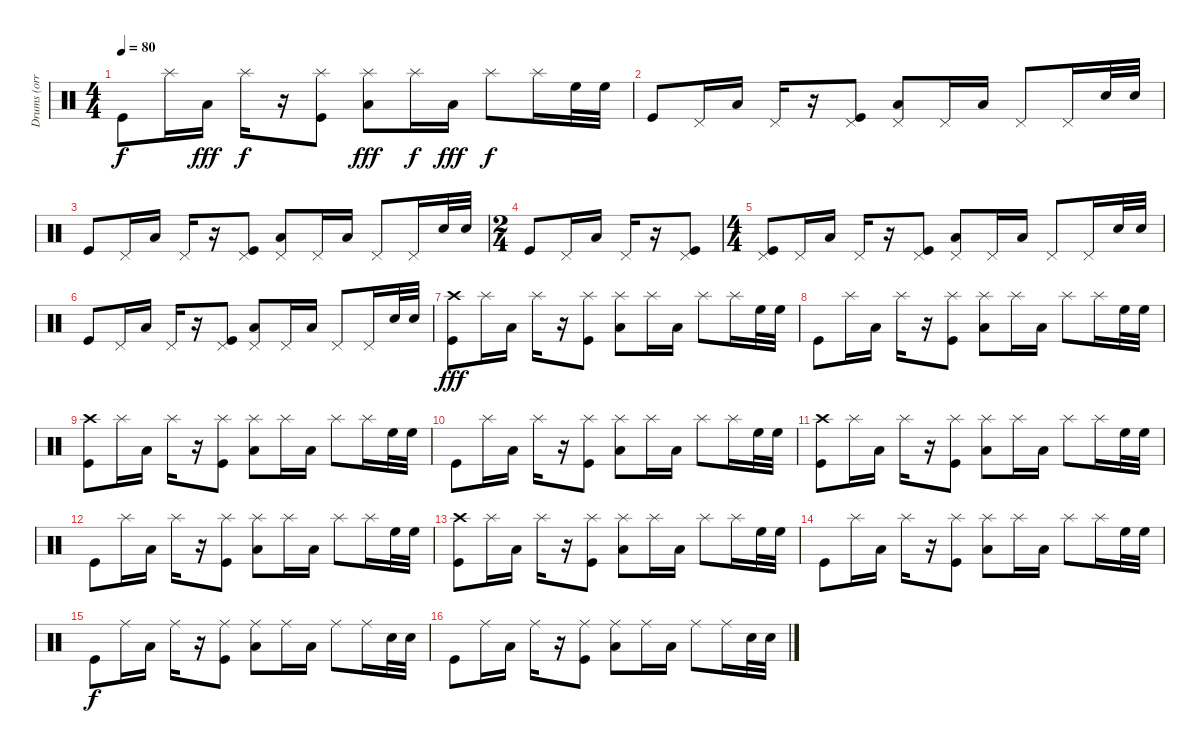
\track ("Drums (orri páll dırason)" "Drums (orr") {instrument percussion}
\staff {score}
\articulation defaults
\ts (4 4)
\tempo 80
\clef neutral
\ks c "Kick (hit)".8{dy f} "Splash (hit)".16 "Low Tom (hit)".16{dy fff} "Splash (hit)".16{dy f}
r.16 ("Splash (hit)" "Kick (hit)").8 ("Splash (hit)" "Low Tom (hit)").8{dy fff} "Splash (hit)".16{dy f} "Low Tom (hit)".16{dy fff} "Splash (hit)".8{dy f} "Splash (hit)".16 "High Floor Tom (hit)".32 "High Floor Tom (hit)".32 |
"Kick (hit)".8 "Pedal Hi-Hat (hit)".16 "Low Floor Tom (hit)".16 "Pedal Hi-Hat (hit)".16 r.16 ("Pedal Hi-Hat (hit)" "Kick (hit)").8 ("Pedal Hi-Hat (hit)" "Low Floor Tom (hit)").8 "Pedal Hi-Hat (hit)".16 "Low Floor Tom (hit)".16 "Pedal Hi-Hat (hit)".8 "Pedal Hi-Hat (hit)".16 "Electric Snare (hit)".32 "Electric Snare (hit)".32 |
"Kick (hit)".8 "Pedal Hi-Hat (hit)".16 "Low Floor Tom (hit)".16 "Pedal Hi-Hat (hit)".16 r.16 ("Pedal Hi-Hat (hit)" "Kick (hit)").8 ("Pedal Hi-Hat (hit)" "Low Floor Tom (hit)").8 "Pedal Hi-Hat (hit)".16 "Low Floor Tom (hit)".16 "Pedal Hi-Hat (hit)".8 "Pedal Hi-Hat (hit)".16 "Electric Snare (hit)".32 "Electric Snare (hit)".32 |
\ts (2 4)
"Kick (hit)".8 "Pedal Hi-Hat (hit)".16 "Low Floor Tom (hit)".16 "Pedal Hi-Hat (hit)".16 r.16 ("Pedal Hi-Hat (hit)" "Kick (hit)").8 |
\ts (4 4)
("Pedal Hi-Hat (hit)" "Kick (hit)").8 "Pedal Hi-Hat (hit)".16 "Low Floor Tom (hit)".16 "Pedal Hi-Hat (hit)".16 r.16 ("Pedal Hi-Hat (hit)" "Kick (hit)").8 ("Pedal Hi-Hat (hit)" "Low Floor Tom (hit)").8 "Pedal Hi-Hat (hit)".16 "Low Floor Tom (hit)".16 "Pedal Hi-Hat (hit)".8 "Pedal Hi-Hat (hit)".16 "Electric Snare (hit)".32 "Electric Snare (hit)".32 |
"Kick (hit)".8 "Pedal Hi-Hat (hit)".16 "Low Floor Tom (hit)".16 "Pedal Hi-Hat (hit)".16 r.16 ("Pedal Hi-Hat (hit)" "Kick (hit)").8 ("Pedal Hi-Hat (hit)" "Low Floor Tom (hit)").8 "Pedal Hi-Hat (hit)".16 "Low Floor Tom (hit)".16 "Pedal Hi-Hat (hit)".8 "Pedal Hi-Hat (hit)".16 "Electric Snare (hit)".32 "Electric Snare (hit)".32 |
("Crash high (hit)" "Kick (hit)").8{dy fff} "Splash (hit)".16 "Low Tom (hit)".16 "Splash (hit)".16 r.16 ("Splash (hit)" "Kick (hit)").8 ("Splash (hit)" "Low Tom (hit)").8 "Splash (hit)".16 "Low Tom (hit)".16 "Splash (hit)".8 "Splash (hit)".16 "High Floor Tom (hit)".32 "High Floor Tom (hit)".32 |
"Kick (hit)".8 "Splash (hit)".16 "Low Tom (hit)".16 "Splash (hit)".16 r.16 ("Splash (hit)" "Kick (hit)").8 ("Splash (hit)" "Low Tom (hit)").8 "Splash (hit)".16 "Low Tom (hit)".16 "Splash (hit)".8 "Splash (hit)".16 "High Floor Tom (hit)".32 "High Floor Tom (hit)".32 |
("Crash high (hit)" "Kick (hit)").8 "Splash (hit)".16 "Low Tom (hit)".16 "Splash (hit)".16 r.16 ("Splash (hit)" "Kick (hit)").8 ("Splash (hit)" "Low Tom (hit)").8 "Splash (hit)".16 "Low Tom (hit)".16 "Splash (hit)".8 "Splash (hit)".16 "High Floor Tom (hit)".32 "High Floor Tom (hit)".32 |
"Kick (hit)".8 "Splash (hit)".16 "Low Tom (hit)".16 "Splash (hit)".16 r.16 ("Splash (hit)" "Kick (hit)").8 ("Splash (hit)" "Low Tom (hit)").8 "Splash (hit)".16 "Low Tom (hit)".16 "Splash (hit)".8 "Splash (hit)".16 "High Floor Tom (hit)".32 "High Floor Tom (hit)".32 |
("Crash high (hit)" "Kick (hit)").8 "Splash (hit)".16 "Low Tom (hit)".16 "Splash (hit)".16 r.16 ("Splash (hit)" "Kick (hit)").8 ("Splash (hit)" "Low Tom (hit)").8 "Splash (hit)".16 "Low Tom (hit)".16 "Splash (hit)".8 "Splash (hit)".16 "High Floor Tom (hit)".32 "High Floor Tom (hit)".32 |
"Kick (hit)".8 "Splash (hit)".16 "Low Tom (hit)".16 "Splash (hit)".16 r.16 ("Splash (hit)" "Kick (hit)").8 ("Splash (hit)" "Low Tom (hit)").8 "Splash (hit)".16 "Low Tom (hit)".16 "Splash (hit)".8 "Splash (hit)".16 "High Floor Tom (hit)".32 "High Floor Tom (hit)".32 |
("Crash high (hit)" "Kick (hit)").8 "Splash (hit)".16 "Low Tom (hit)".16 "Splash (hit)".16 r.16 ("Splash (hit)" "Kick (hit)").8 ("Splash (hit)" "Low Tom (hit)").8 "Splash (hit)".16 "Low Tom (hit)".16 "Splash (hit)".8 "Splash (hit)".16 "High Floor Tom (hit)".32 "High Floor Tom (hit)".32 |
"Kick (hit)".8 "Splash (hit)".16 "Low Tom (hit)".16 "Splash (hit)".16 r.16 ("Splash (hit)" "Kick (hit)").8 ("Splash (hit)" "Low Tom (hit)").8 "Splash (hit)".16 "Low Tom (hit)".16 "Splash (hit)".8 "Splash (hit)".16 "High Floor Tom (hit)".32 "High Floor Tom (hit)".32 |
"Kick (hit)".8{dy f} "Ride (middle)".16 "Low Tom (hit)".16 "Ride (middle)".16 r.16 ("Ride (middle)" "Kick (hit)").8 ("Ride (middle)" "Low Tom (hit)").8 "Ride (middle)".16 "Low Tom (hit)".16 "Ride (middle)".8 "Ride (middle)".16 "Electric Snare (hit)".32 "Electric Snare (hit)".32 |
"Kick (hit)".8 "Ride (middle)".16 "Low Tom (hit)".16 "Ride (middle)".16 r.16 ("Ride (middle)" "Kick (hit)").8 ("Ride (middle)" "Low Tom (hit)").8 "Ride (middle)".16 "Low Tom (hit)".16 "Ride (middle)".8 "Ride (middle)".16 "Electric Snare (hit)".32 "Electric Snare (hit)".32
